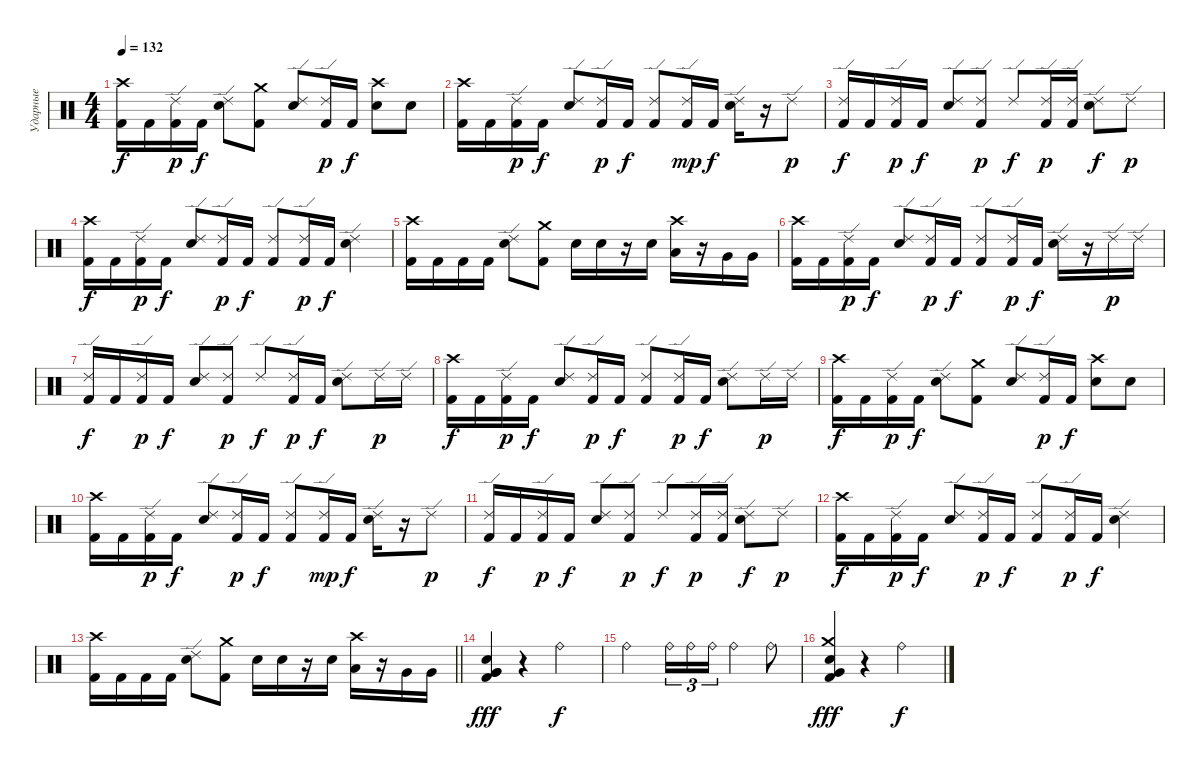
\track ("Ударные" "Ударные") {instrument percussion}
\staff {score}
\articulation defaults
\ts (4 4)
\tempo 132
\clef neutral
\ks c
("Crash high (hit)" "Kick (hit) 2").16{dy f} "Kick (hit) 2".16 ("Kick (hit) 2" "Ride (edge) 2").16{dy p} "Kick (hit) 2".16{dy f} ("Electric Snare (hit)" "Ride (edge) 2").8 ("Crash medium (hit)" "Kick (hit) 2").8 ("Electric Snare (hit)" "Ride (edge) 2").8 ("Kick (hit) 2" "Ride (edge) 2").16{dy p} "Kick (hit) 2".16{dy f} ("Crash high (hit)" "Electric Snare (hit)").8 "Electric Snare (hit)".8 |
("Crash high (hit)" "Kick (hit) 2").16 "Kick (hit) 2".16 ("Kick (hit) 2" "Ride (edge) 2").16{dy p} "Kick (hit) 2".16{dy f} ("Electric Snare (hit)" "Ride (edge) 2").8 ("Kick (hit) 2" "Ride (edge) 2").16{dy p} "Kick (hit) 2".16{dy f} ("Kick (hit) 2" "Ride (edge) 2").8 ("Kick (hit) 2" "Ride (edge) 2").16{dy mp} "Kick (hit) 2".16{dy f} ("Electric Snare (hit)" "Ride (edge) 2").16 r.16 "Ride (edge) 2".8{dy p} |
("Kick (hit) 2" "Ride (edge) 2").16{dy f} "Kick (hit) 2".16 ("Kick (hit) 2" "Ride (edge) 2").16{dy p} "Kick (hit) 2".16{dy f} ("Electric Snare (hit)" "Ride (edge) 2").8 ("Kick (hit) 2" "Ride (edge) 2").8{dy p} "Ride (edge) 2".8{dy f} ("Kick (hit) 2" "Ride (edge) 2").16{dy p} ("Kick (hit) 2" "Ride (edge) 2").16 ("Electric Snare (hit)" "Ride (edge) 2").8{dy f} "Ride (edge) 2".8{dy p} |
("Crash high (hit)" "Kick (hit) 2").16{dy f} "Kick (hit) 2".16 ("Kick (hit) 2" "Ride (edge) 2").16{dy p} "Kick (hit) 2".16{dy f} ("Electric Snare (hit)" "Ride (edge) 2").8 ("Kick (hit) 2" "Ride (edge) 2").16{dy p} "Kick (hit) 2".16{dy f} ("Kick (hit) 2" "Ride (edge) 2").8 ("Kick (hit) 2" "Ride (edge) 2").16{dy p} "Kick (hit) 2".16{dy f} ("Electric Snare (hit)" "Ride (edge) 2").4 |
("Crash high (hit)" "Kick (hit) 2").16 "Kick (hit) 2".16 "Kick (hit) 2".16 "Kick (hit) 2".16 ("Electric Snare (hit)" "Ride (edge) 2").8 ("Crash medium (hit)" "Kick (hit) 2").8 "Electric Snare (hit)".16 "Electric Snare (hit)".16 r.16 "Electric Snare (hit)".16 ("Crash high (hit)" "Low Tom (hit)").16 r.16 "Very Low Tom (hit)".16 "Very Low Tom (hit)".16 |
("Crash high (hit)" "Kick (hit) 2").16 "Kick (hit) 2".16 ("Kick (hit) 2" "Ride (edge) 2").16{dy p} "Kick (hit) 2".16{dy f} ("Electric Snare (hit)" "Ride (edge) 2").8 ("Kick (hit) 2" "Ride (edge) 2").16{dy p} "Kick (hit) 2".16{dy f} ("Kick (hit) 2" "Ride (edge) 2").8 ("Kick (hit) 2" "Ride (edge) 2").16{dy p} "Kick (hit) 2".16{dy f} ("Electric Snare (hit)" "Ride (edge) 2").16 r.16 "Ride (edge) 2".16{dy p} "Ride (edge) 2".16 |
("Kick (hit) 2" "Ride (edge) 2").16{dy f} "Kick (hit) 2".16 ("Kick (hit) 2" "Ride (edge) 2").16{dy p} "Kick (hit) 2".16{dy f} ("Electric Snare (hit)" "Ride (edge) 2").8 ("Kick (hit) 2" "Ride (edge) 2").8{dy p} "Ride (edge) 2".8{dy f} ("Kick (hit) 2" "Ride (edge) 2").16{dy p} "Kick (hit) 2".16{dy f} ("Electric Snare (hit)" "Ride (edge) 2").8 "Ride (edge) 2".16{dy p} "Ride (edge) 2".16 |
("Crash high (hit)" "Kick (hit) 2").16{dy f} "Kick (hit) 2".16 ("Kick (hit) 2" "Ride (edge) 2").16{dy p} "Kick (hit) 2".16{dy f} ("Electric Snare (hit)" "Ride (edge) 2").8 ("Kick (hit) 2" "Ride (edge) 2").16{dy p} "Kick (hit) 2".16{dy f} ("Kick (hit) 2" "Ride (edge) 2").8 ("Kick (hit) 2" "Ride (edge) 2").16{dy p} "Kick (hit) 2".16{dy f} ("Electric Snare (hit)" "Ride (edge) 2").8 "Ride (edge) 2".16{dy p} "Ride (edge) 2".16 |
("Crash high (hit)" "Kick (hit) 2").16{dy f} "Kick (hit) 2".16 ("Kick (hit) 2" "Ride (edge) 2").16{dy p} "Kick (hit) 2".16{dy f} ("Electric Snare (hit)" "Ride (edge) 2").8 ("Crash medium (hit)" "Kick (hit) 2").8 ("Electric Snare (hit)" "Ride (edge) 2").8 ("Kick (hit) 2" "Ride (edge) 2").16{dy p} "Kick (hit) 2".16{dy f} ("Crash high (hit)" "Electric Snare (hit)").8 "Electric Snare (hit)".8 |
("Crash high (hit)" "Kick (hit) 2").16 "Kick (hit) 2".16 ("Kick (hit) 2" "Ride (edge) 2").16{dy p} "Kick (hit) 2".16{dy f} ("Electric Snare (hit)" "Ride (edge) 2").8 ("Kick (hit) 2" "Ride (edge) 2").16{dy p} "Kick (hit) 2".16{dy f} ("Kick (hit) 2" "Ride (edge) 2").8 ("Kick (hit) 2" "Ride (edge) 2").16{dy mp} "Kick (hit) 2".16{dy f} ("Electric Snare (hit)" "Ride (edge) 2").16 r.16 "Ride (edge) 2".8{dy p} |
("Kick (hit) 2" "Ride (edge) 2").16{dy f} "Kick (hit) 2".16 ("Kick (hit) 2" "Ride (edge) 2").16{dy p} "Kick (hit) 2".16{dy f} ("Electric Snare (hit)" "Ride (edge) 2").8 ("Kick (hit) 2" "Ride (edge) 2").8{dy p} "Ride (edge) 2".8{dy f} ("Kick (hit) 2" "Ride (edge) 2").16{dy p} ("Kick (hit) 2" "Ride (edge) 2").16 ("Electric Snare (hit)" "Ride (edge) 2").8{dy f} "Ride (edge) 2".8{dy p} |
("Crash high (hit)" "Kick (hit) 2").16{dy f} "Kick (hit) 2".16 ("Kick (hit) 2" "Ride (edge) 2").16{dy p} "Kick (hit) 2".16{dy f} ("Electric Snare (hit)" "Ride (edge) 2").8 ("Kick (hit) 2" "Ride (edge) 2").16{dy p} "Kick (hit) 2".16{dy f} ("Kick (hit) 2" "Ride (edge) 2").8 ("Kick (hit) 2" "Ride (edge) 2").16{dy p} "Kick (hit) 2".16{dy f} ("Electric Snare (hit)" "Ride (edge) 2").4 |
\barLineRight lightlight
("Crash high (hit)" "Kick (hit) 2").16 "Kick (hit) 2".16 "Kick (hit) 2".16 "Kick (hit) 2".16 ("Electric Snare (hit)" "Ride (edge) 2").8 ("Crash medium (hit)" "Kick (hit) 2").8 "Electric Snare (hit)".16 "Electric Snare (hit)".16 r.16 "Electric Snare (hit)".16 ("Crash high (hit)" "Low Tom (hit)").16 r.16 "Very Low Tom (hit)".16 "Very Low Tom (hit)".16 |
("Very Low Tom (hit)" "Kick (hit) 2" "Electric Snare (hit)" "Very Low Tom (hit)").4{dy fff} r.4 "Ride (bell)".2{dy f} |
"Ride (bell)".2 "Ride (bell)".16{tu (3 2)} "Ride (bell)".16{tu (3 2)} "Ride (bell)".16{tu (3 2)} "Ride (bell)".4 "Ride (bell)".8 |
("Crash medium (hit)" "Kick (hit) 2" "Electric Snare (hit)" "Very Low Tom (hit)").4{dy fff} r.4 "Ride (bell)".2{dy f}
